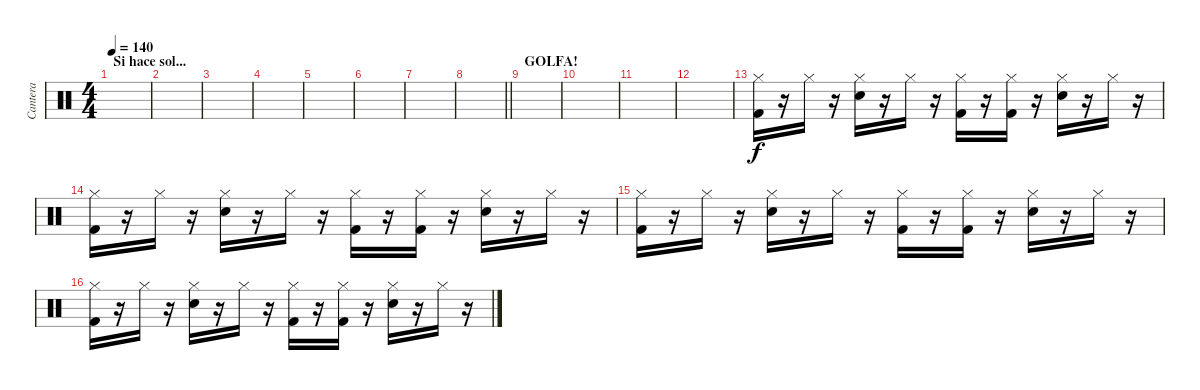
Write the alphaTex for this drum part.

\track ("Cantera" "Cantera") {instrument percussion}
\staff {score}
\articulation defaults
\ts (4 4)
\section ("" "Si hace sol...")
\tempo 140
\clef neutral
\ks c
|
|
|
|
|
|
|
\barLineRight lightlight
|
\section ("" "GOLFA!")
|
|
|
|
("Hi-Hat (closed)" "Kick (hit) 2").16 r.16 "Hi-Hat (closed)".16 r.16 ("Hi-Hat (closed)" "Snare (hit) 2").16 r.16 "Hi-Hat (closed)".16 r.16 ("Hi-Hat (closed)" "Kick (hit) 2").16 r.16 ("Hi-Hat (closed)" "Kick (hit) 2").16 r.16 ("Hi-Hat (closed)" "Snare (hit) 2").16 r.16 "Hi-Hat (closed)".16 r.16 |
("Hi-Hat (closed)" "Kick (hit) 2").16 r.16 "Hi-Hat (closed)".16 r.16 ("Hi-Hat (closed)" "Snare (hit) 2").16 r.16 "Hi-Hat (closed)".16 r.16 ("Hi-Hat (closed)" "Kick (hit) 2").16 r.16 ("Hi-Hat (closed)" "Kick (hit) 2").16 r.16 ("Hi-Hat (closed)" "Snare (hit) 2").16 r.16 "Hi-Hat (closed)".16 r.16 |
("Hi-Hat (closed)" "Kick (hit) 2").16 r.16 "Hi-Hat (closed)".16 r.16 ("Hi-Hat (closed)" "Snare (hit) 2").16 r.16 "Hi-Hat (closed)".16 r.16 ("Hi-Hat (closed)" "Kick (hit) 2").16 r.16 ("Hi-Hat (closed)" "Kick (hit) 2").16 r.16 ("Hi-Hat (closed)" "Snare (hit) 2").16 r.16 "Hi-Hat (closed)".16 r.16 |
("Hi-Hat (closed)" "Kick (hit) 2").16 r.16 "Hi-Hat (closed)".16 r.16 ("Hi-Hat (closed)" "Snare (hit) 2").16 r.16 "Hi-Hat (closed)".16 r.16 ("Hi-Hat (closed)" "Kick (hit) 2").16 r.16 ("Hi-Hat (closed)" "Kick (hit) 2").16 r.16 ("Hi-Hat (closed)" "Snare (hit) 2").16 r.16 "Hi-Hat (closed)".16 r.16
